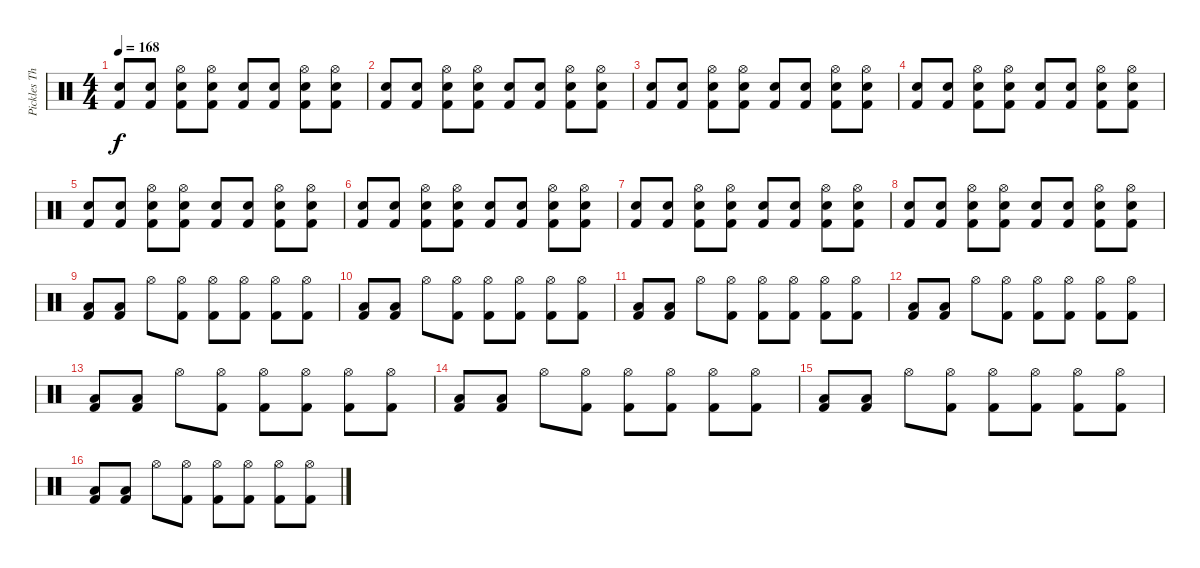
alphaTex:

\track ("Pickles The Drummer" "Pickles Th") {instrument percussion}
\staff {score}
\articulation defaults
\ts (4 4)
\tempo 168
\clef neutral
\ks c
("Snare (hit) 2" "Kick (hit) 2").8{dy f} ("Snare (hit) 2" "Kick (hit) 2").8 ("Snare (hit) 2" "Kick (hit) 2" "Hi-Hat (open)").8 ("Snare (hit) 2" "Kick (hit) 2" "Hi-Hat (open)").8 ("Snare (hit) 2" "Kick (hit) 2").8 ("Snare (hit) 2" "Kick (hit) 2").8 ("Snare (hit) 2" "Kick (hit) 2" "Hi-Hat (open)").8 ("Snare (hit) 2" "Kick (hit) 2" "Hi-Hat (open)").8 |
("Snare (hit) 2" "Kick (hit) 2").8 ("Snare (hit) 2" "Kick (hit) 2").8 ("Snare (hit) 2" "Kick (hit) 2" "Hi-Hat (open)").8 ("Snare (hit) 2" "Kick (hit) 2" "Hi-Hat (open)").8 ("Snare (hit) 2" "Kick (hit) 2").8 ("Snare (hit) 2" "Kick (hit) 2").8 ("Snare (hit) 2" "Kick (hit) 2" "Hi-Hat (open)").8 ("Snare (hit) 2" "Kick (hit) 2" "Hi-Hat (open)").8 |
("Snare (hit) 2" "Kick (hit) 2").8 ("Snare (hit) 2" "Kick (hit) 2").8 ("Snare (hit) 2" "Kick (hit) 2" "Hi-Hat (open)").8 ("Snare (hit) 2" "Kick (hit) 2" "Hi-Hat (open)").8 ("Snare (hit) 2" "Kick (hit) 2").8 ("Snare (hit) 2" "Kick (hit) 2").8 ("Snare (hit) 2" "Kick (hit) 2" "Hi-Hat (open)").8 ("Snare (hit) 2" "Kick (hit) 2" "Hi-Hat (open)").8 |
("Snare (hit) 2" "Kick (hit) 2").8 ("Snare (hit) 2" "Kick (hit) 2").8 ("Snare (hit) 2" "Kick (hit) 2" "Hi-Hat (open)").8 ("Snare (hit) 2" "Kick (hit) 2" "Hi-Hat (open)").8 ("Snare (hit) 2" "Kick (hit) 2").8 ("Snare (hit) 2" "Kick (hit) 2").8 ("Snare (hit) 2" "Kick (hit) 2" "Hi-Hat (open)").8 ("Snare (hit) 2" "Kick (hit) 2" "Hi-Hat (open)").8 |
("Snare (hit) 2" "Kick (hit) 2").8 ("Snare (hit) 2" "Kick (hit) 2").8 ("Snare (hit) 2" "Kick (hit) 2" "Hi-Hat (open)").8 ("Snare (hit) 2" "Kick (hit) 2" "Hi-Hat (open)").8 ("Snare (hit) 2" "Kick (hit) 2").8 ("Snare (hit) 2" "Kick (hit) 2").8 ("Snare (hit) 2" "Kick (hit) 2" "Hi-Hat (open)").8 ("Snare (hit) 2" "Kick (hit) 2" "Hi-Hat (open)").8 |
("Snare (hit) 2" "Kick (hit) 2").8 ("Snare (hit) 2" "Kick (hit) 2").8 ("Snare (hit) 2" "Kick (hit) 2" "Hi-Hat (open)").8 ("Snare (hit) 2" "Kick (hit) 2" "Hi-Hat (open)").8 ("Snare (hit) 2" "Kick (hit) 2").8 ("Snare (hit) 2" "Kick (hit) 2").8 ("Snare (hit) 2" "Kick (hit) 2" "Hi-Hat (open)").8 ("Snare (hit) 2" "Kick (hit) 2" "Hi-Hat (open)").8 |
("Snare (hit) 2" "Kick (hit) 2").8 ("Snare (hit) 2" "Kick (hit) 2").8 ("Snare (hit) 2" "Kick (hit) 2" "Hi-Hat (open)").8 ("Snare (hit) 2" "Kick (hit) 2" "Hi-Hat (open)").8 ("Snare (hit) 2" "Kick (hit) 2").8 ("Snare (hit) 2" "Kick (hit) 2").8 ("Snare (hit) 2" "Kick (hit) 2" "Hi-Hat (open)").8 ("Snare (hit) 2" "Kick (hit) 2" "Hi-Hat (open)").8 |
("Snare (hit) 2" "Kick (hit) 2").8 ("Snare (hit) 2" "Kick (hit) 2").8 ("Snare (hit) 2" "Kick (hit) 2" "Hi-Hat (open)").8 ("Snare (hit) 2" "Kick (hit) 2" "Hi-Hat (open)").8 ("Snare (hit) 2" "Kick (hit) 2").8 ("Snare (hit) 2" "Kick (hit) 2").8 ("Snare (hit) 2" "Kick (hit) 2" "Hi-Hat (open)").8 ("Snare (hit) 2" "Kick (hit) 2" "Hi-Hat (open)").8 |
("Low Floor Tom (hit)" "Kick (hit) 2").8 ("Low Floor Tom (hit)" "Kick (hit) 2").8 "Hi-Hat (open)".8 ("Kick (hit) 2" "Hi-Hat (open)").8 ("Kick (hit) 2" "Hi-Hat (open)").8 ("Kick (hit) 2" "Hi-Hat (open)").8 ("Kick (hit) 2" "Hi-Hat (open)").8 ("Kick (hit) 2" "Hi-Hat (open)").8 |
("Low Floor Tom (hit)" "Kick (hit) 2").8 ("Low Floor Tom (hit)" "Kick (hit) 2").8 "Hi-Hat (open)".8 ("Kick (hit) 2" "Hi-Hat (open)").8 ("Kick (hit) 2" "Hi-Hat (open)").8 ("Kick (hit) 2" "Hi-Hat (open)").8 ("Kick (hit) 2" "Hi-Hat (open)").8 ("Kick (hit) 2" "Hi-Hat (open)").8 |
("Low Floor Tom (hit)" "Kick (hit) 2").8 ("Low Floor Tom (hit)" "Kick (hit) 2").8 "Hi-Hat (open)".8 ("Kick (hit) 2" "Hi-Hat (open)").8 ("Kick (hit) 2" "Hi-Hat (open)").8 ("Kick (hit) 2" "Hi-Hat (open)").8 ("Kick (hit) 2" "Hi-Hat (open)").8 ("Kick (hit) 2" "Hi-Hat (open)").8 |
("Low Floor Tom (hit)" "Kick (hit) 2").8 ("Low Floor Tom (hit)" "Kick (hit) 2").8 "Hi-Hat (open)".8 ("Kick (hit) 2" "Hi-Hat (open)").8 ("Kick (hit) 2" "Hi-Hat (open)").8 ("Kick (hit) 2" "Hi-Hat (open)").8 ("Kick (hit) 2" "Hi-Hat (open)").8 ("Kick (hit) 2" "Hi-Hat (open)").8 |
("Low Floor Tom (hit)" "Kick (hit) 2").8 ("Low Floor Tom (hit)" "Kick (hit) 2").8 "Hi-Hat (open)".8 ("Kick (hit) 2" "Hi-Hat (open)").8 ("Kick (hit) 2" "Hi-Hat (open)").8 ("Kick (hit) 2" "Hi-Hat (open)").8 ("Kick (hit) 2" "Hi-Hat (open)").8 ("Kick (hit) 2" "Hi-Hat (open)").8 |
("Low Floor Tom (hit)" "Kick (hit) 2").8 ("Low Floor Tom (hit)" "Kick (hit) 2").8 "Hi-Hat (open)".8 ("Kick (hit) 2" "Hi-Hat (open)").8 ("Kick (hit) 2" "Hi-Hat (open)").8 ("Kick (hit) 2" "Hi-Hat (open)").8 ("Kick (hit) 2" "Hi-Hat (open)").8 ("Kick (hit) 2" "Hi-Hat (open)").8 |
("Low Floor Tom (hit)" "Kick (hit) 2").8 ("Low Floor Tom (hit)" "Kick (hit) 2").8 "Hi-Hat (open)".8 ("Kick (hit) 2" "Hi-Hat (open)").8 ("Kick (hit) 2" "Hi-Hat (open)").8 ("Kick (hit) 2" "Hi-Hat (open)").8 ("Kick (hit) 2" "Hi-Hat (open)").8 ("Kick (hit) 2" "Hi-Hat (open)").8 |
("Low Floor Tom (hit)" "Kick (hit) 2").8 ("Low Floor Tom (hit)" "Kick (hit) 2").8 "Hi-Hat (open)".8 ("Kick (hit) 2" "Hi-Hat (open)").8 ("Kick (hit) 2" "Hi-Hat (open)").8 ("Kick (hit) 2" "Hi-Hat (open)").8 ("Kick (hit) 2" "Hi-Hat (open)").8 ("Kick (hit) 2" "Hi-Hat (open)").8
